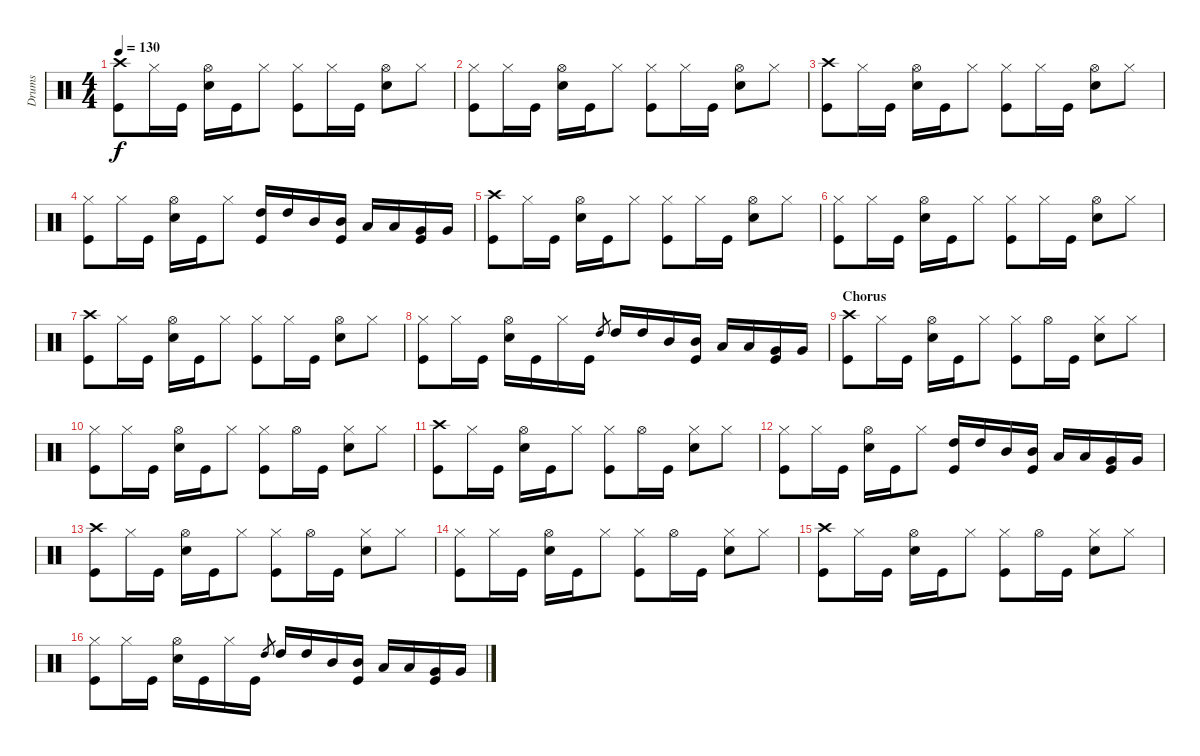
\track ("Drums" "Drums") {instrument percussion}
\staff {score}
\articulation defaults
\ts (4 4)
\tempo 130
\clef neutral
\ks c
("Crash high (hit)" "Kick (hit)").8{dy f} "Hi-Hat (closed)".16 "Kick (hit)".16 ("Hi-Hat (open)" "Snare (hit) 2").16 "Kick (hit)".16 "Hi-Hat (closed)".8 ("Hi-Hat (closed)" "Kick (hit)").8 "Hi-Hat (closed)".16 "Kick (hit)".16 ("Hi-Hat (open)" "Snare (hit) 2").8 "Hi-Hat (closed)".8 |
("Hi-Hat (closed)" "Kick (hit)").8 "Hi-Hat (closed)".16 "Kick (hit)".16 ("Hi-Hat (open)" "Snare (hit) 2").16 "Kick (hit)".16 "Hi-Hat (closed)".8 ("Hi-Hat (closed)" "Kick (hit)").8 "Hi-Hat (closed)".16 "Kick (hit)".16 ("Hi-Hat (open)" "Snare (hit) 2").8 "Hi-Hat (closed)".8 |
("Crash high (hit)" "Kick (hit)").8 "Hi-Hat (closed)".16 "Kick (hit)".16 ("Hi-Hat (open)" "Snare (hit) 2").16 "Kick (hit)".16 "Hi-Hat (closed)".8 ("Hi-Hat (closed)" "Kick (hit)").8 "Hi-Hat (closed)".16 "Kick (hit)".16 ("Hi-Hat (open)" "Snare (hit) 2").8 "Hi-Hat (closed)".8 |
("Hi-Hat (closed)" "Kick (hit)").8 "Hi-Hat (closed)".16 "Kick (hit)".16 ("Hi-Hat (open)" "Snare (hit) 2").16 "Kick (hit)".16 "Hi-Hat (closed)".8 ("High Tom (hit)" "Kick (hit)").16 "High Tom (hit)".16 "Mid Tom (hit)".16 ("Mid Tom (hit)" "Kick (hit)").16 "Low Tom (hit)".16 "Low Tom (hit)".16 ("Very Low Tom (hit)" "Kick (hit)").16 "Very Low Tom (hit)".16 |
("Crash high (hit)" "Kick (hit)").8 "Hi-Hat (closed)".16 "Kick (hit)".16 ("Hi-Hat (open)" "Snare (hit) 2").16 "Kick (hit)".16 "Hi-Hat (closed)".8 ("Hi-Hat (closed)" "Kick (hit)").8 "Hi-Hat (closed)".16 "Kick (hit)".16 ("Hi-Hat (open)" "Snare (hit) 2").8 "Hi-Hat (closed)".8 |
("Hi-Hat (closed)" "Kick (hit)").8 "Hi-Hat (closed)".16 "Kick (hit)".16 ("Hi-Hat (open)" "Snare (hit) 2").16 "Kick (hit)".16 "Hi-Hat (closed)".8 ("Hi-Hat (closed)" "Kick (hit)").8 "Hi-Hat (closed)".16 "Kick (hit)".16 ("Hi-Hat (open)" "Snare (hit) 2").8 "Hi-Hat (closed)".8 |
("Crash high (hit)" "Kick (hit)").8 "Hi-Hat (closed)".16 "Kick (hit)".16 ("Hi-Hat (open)" "Snare (hit) 2").16 "Kick (hit)".16 "Hi-Hat (closed)".8 ("Hi-Hat (closed)" "Kick (hit)").8 "Hi-Hat (closed)".16 "Kick (hit)".16 ("Hi-Hat (open)" "Snare (hit) 2").8 "Hi-Hat (closed)".8 |
("Hi-Hat (closed)" "Kick (hit)").8 "Hi-Hat (closed)".16 "Kick (hit)".16 ("Hi-Hat (open)" "Snare (hit) 2").16 "Kick (hit)".16 "Hi-Hat (closed)".16 "Kick (hit)".16 "High Tom (hit)".8{gr} "High Tom (hit)".16 "High Tom (hit)".16 "Mid Tom (hit)".16 ("Mid Tom (hit)" "Kick (hit)").16 "Low Tom (hit)".16 "Low Tom (hit)".16 ("Very Low Tom (hit)" "Kick (hit)").16 "Very Low Tom (hit)".16 |
\section ("" "Chorus")
("Crash high (hit)" "Kick (hit)").8 "Hi-Hat (closed)".16 "Kick (hit)".16 ("Hi-Hat (open)" "Snare (hit) 2").16 "Kick (hit)".16 "Hi-Hat (closed)".8 ("Hi-Hat (closed)" "Kick (hit)").8 "Hi-Hat (open)".16 "Kick (hit)".16 ("Hi-Hat (closed)" "Snare (hit) 2").8 "Hi-Hat (closed)".8 |
("Hi-Hat (closed)" "Kick (hit)").8 "Hi-Hat (closed)".16 "Kick (hit)".16 ("Hi-Hat (open)" "Snare (hit) 2").16 "Kick (hit)".16 "Hi-Hat (closed)".8 ("Hi-Hat (closed)" "Kick (hit)").8 "Hi-Hat (open)".16 "Kick (hit)".16 ("Hi-Hat (closed)" "Snare (hit) 2").8 "Hi-Hat (closed)".8 |
("Crash high (hit)" "Kick (hit)").8 "Hi-Hat (closed)".16 "Kick (hit)".16 ("Hi-Hat (open)" "Snare (hit) 2").16 "Kick (hit)".16 "Hi-Hat (closed)".8 ("Hi-Hat (closed)" "Kick (hit)").8 "Hi-Hat (open)".16 "Kick (hit)".16 ("Hi-Hat (closed)" "Snare (hit) 2").8 "Hi-Hat (closed)".8 |
("Hi-Hat (closed)" "Kick (hit)").8 "Hi-Hat (closed)".16 "Kick (hit)".16 ("Hi-Hat (open)" "Snare (hit) 2").16 "Kick (hit)".16 "Hi-Hat (closed)".8 ("High Tom (hit)" "Kick (hit)").16 "High Tom (hit)".16 "Mid Tom (hit)".16 ("Mid Tom (hit)" "Kick (hit)").16 "Low Tom (hit)".16 "Low Tom (hit)".16 ("Very Low Tom (hit)" "Kick (hit)").16 "Very Low Tom (hit)".16 |
("Crash high (hit)" "Kick (hit)").8 "Hi-Hat (closed)".16 "Kick (hit)".16 ("Hi-Hat (open)" "Snare (hit) 2").16 "Kick (hit)".16 "Hi-Hat (closed)".8 ("Hi-Hat (closed)" "Kick (hit)").8 "Hi-Hat (open)".16 "Kick (hit)".16 ("Hi-Hat (closed)" "Snare (hit) 2").8 "Hi-Hat (closed)".8 |
("Hi-Hat (closed)" "Kick (hit)").8 "Hi-Hat (closed)".16 "Kick (hit)".16 ("Hi-Hat (open)" "Snare (hit) 2").16 "Kick (hit)".16 "Hi-Hat (closed)".8 ("Hi-Hat (closed)" "Kick (hit)").8 "Hi-Hat (open)".16 "Kick (hit)".16 ("Hi-Hat (closed)" "Snare (hit) 2").8 "Hi-Hat (closed)".8 |
("Crash high (hit)" "Kick (hit)").8 "Hi-Hat (closed)".16 "Kick (hit)".16 ("Hi-Hat (open)" "Snare (hit) 2").16 "Kick (hit)".16 "Hi-Hat (closed)".8 ("Hi-Hat (closed)" "Kick (hit)").8 "Hi-Hat (open)".16 "Kick (hit)".16 ("Hi-Hat (closed)" "Snare (hit) 2").8 "Hi-Hat (closed)".8 |
("Hi-Hat (closed)" "Kick (hit)").8 "Hi-Hat (closed)".16 "Kick (hit)".16 ("Hi-Hat (open)" "Snare (hit) 2").16 "Kick (hit)".16 "Hi-Hat (closed)".16 "Kick (hit)".16 "High Tom (hit)".8{gr} "High Tom (hit)".16 "High Tom (hit)".16 "Mid Tom (hit)".16 ("Mid Tom (hit)" "Kick (hit)").16 "Low Tom (hit)".16 "Low Tom (hit)".16 ("Very Low Tom (hit)" "Kick (hit)").16 "Very Low Tom (hit)".16
